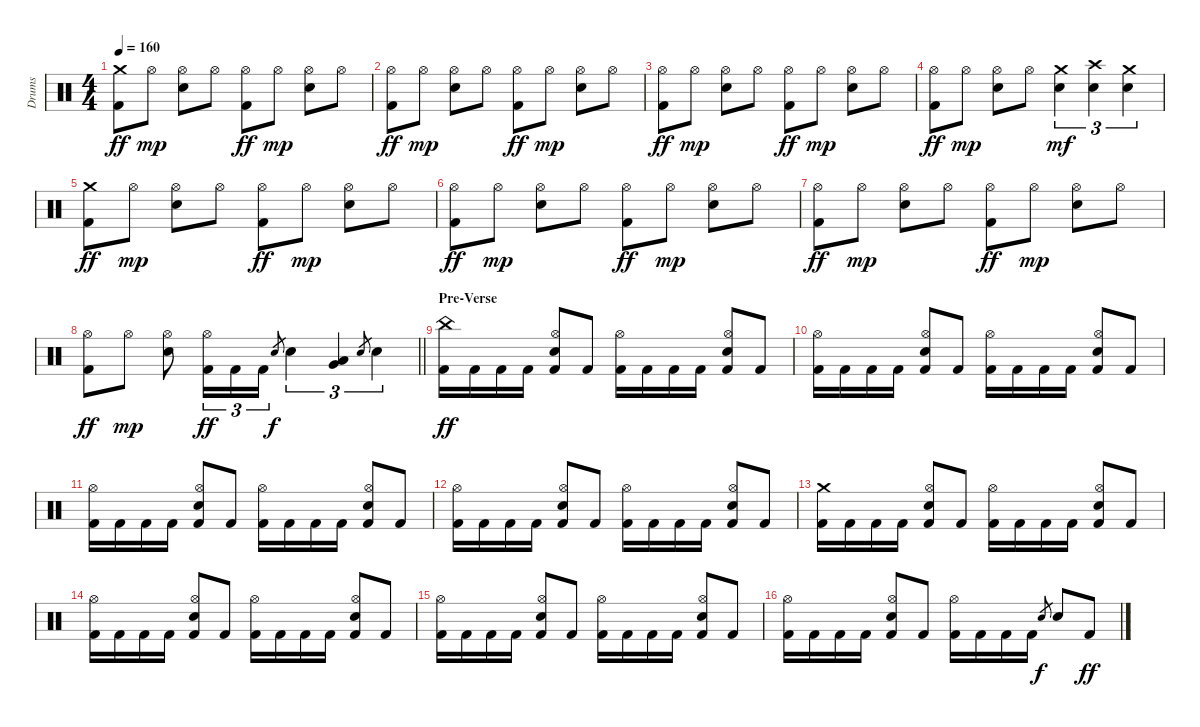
\track ("Drums" "Drums") {instrument percussion}
\staff {score}
\articulation defaults
\ts (4 4)
\section ("" "")
\tempo 160
\clef neutral
\ks c
("Crash medium (hit)" "Kick (hit) 2").8{dy ff} "Hi-Hat (open)".8{dy mp} ("Hi-Hat (open)" "Electric Snare (hit)").8 "Hi-Hat (open)".8 ("Hi-Hat (open)" "Kick (hit) 2").8{dy ff} "Hi-Hat (open)".8{dy mp} ("Hi-Hat (open)" "Electric Snare (hit)").8 "Hi-Hat (open)".8 |
("Hi-Hat (open)" "Kick (hit) 2").8{dy ff} "Hi-Hat (open)".8{dy mp} ("Hi-Hat (open)" "Electric Snare (hit)").8 "Hi-Hat (open)".8 ("Hi-Hat (open)" "Kick (hit) 2").8{dy ff} "Hi-Hat (open)".8{dy mp} ("Hi-Hat (open)" "Electric Snare (hit)").8 "Hi-Hat (open)".8 |
("Hi-Hat (open)" "Kick (hit) 2").8{dy ff} "Hi-Hat (open)".8{dy mp} ("Hi-Hat (open)" "Electric Snare (hit)").8 "Hi-Hat (open)".8 ("Hi-Hat (open)" "Kick (hit) 2").8{dy ff} "Hi-Hat (open)".8{dy mp} ("Hi-Hat (open)" "Electric Snare (hit)").8 "Hi-Hat (open)".8 |
("Hi-Hat (open)" "Kick (hit) 2").8{dy ff} "Hi-Hat (open)".8{dy mp} ("Hi-Hat (open)" "Electric Snare (hit)").8 "Hi-Hat (open)".8 ("Crash medium (hit)" "Electric Snare (hit)").4{tu (3 2) dy mf} ("Crash high (hit)" "Electric Snare (hit)").4{tu (3 2)} ("Crash medium (hit)" "Electric Snare (hit)").4{tu (3 2)} |
("Crash medium (hit)" "Kick (hit) 2").8{dy ff} "Hi-Hat (open)".8{dy mp} ("Hi-Hat (open)" "Electric Snare (hit)").8 "Hi-Hat (open)".8 ("Hi-Hat (open)" "Kick (hit) 2").8{dy ff} "Hi-Hat (open)".8{dy mp} ("Hi-Hat (open)" "Electric Snare (hit)").8 "Hi-Hat (open)".8 |
("Hi-Hat (open)" "Kick (hit) 2").8{dy ff} "Hi-Hat (open)".8{dy mp} ("Hi-Hat (open)" "Electric Snare (hit)").8 "Hi-Hat (open)".8 ("Hi-Hat (open)" "Kick (hit) 2").8{dy ff} "Hi-Hat (open)".8{dy mp} ("Hi-Hat (open)" "Electric Snare (hit)").8 "Hi-Hat (open)".8 |
("Hi-Hat (open)" "Kick (hit) 2").8{dy ff} "Hi-Hat (open)".8{dy mp} ("Hi-Hat (open)" "Electric Snare (hit)").8 "Hi-Hat (open)".8 ("Hi-Hat (open)" "Kick (hit) 2").8{dy ff} "Hi-Hat (open)".8{dy mp} ("Hi-Hat (open)" "Electric Snare (hit)").8 "Hi-Hat (open)".8 |
\barLineRight lightlight
("Hi-Hat (open)" "Kick (hit) 2").8{dy ff} "Hi-Hat (open)".8{dy mp} ("Hi-Hat (open)" "Electric Snare (hit)").8 ("Hi-Hat (open)" "Kick (hit) 2").16{tu (3 2) dy ff} "Kick (hit) 2".16{tu (3 2)} "Kick (hit) 2".16{tu (3 2)} "Electric Snare (hit)".8{gr dy f} "Electric Snare (hit)".4{tu (3 2)} ("Low Tom (hit)" "Very Low Tom (hit)").4{tu (3 2)} "Electric Snare (hit)".8{gr} "Electric Snare (hit)".4{tu (3 2)} |
\section ("" "Pre-Verse")
("China (hit)" "Kick (hit) 2").16{dy ff} "Kick (hit) 2".16 "Kick (hit) 2".16 "Kick (hit) 2".16 ("Hi-Hat (open)" "Electric Snare (hit)" "Kick (hit) 2").8 "Kick (hit) 2".8 ("Hi-Hat (open)" "Kick (hit) 2").16 "Kick (hit) 2".16 "Kick (hit) 2".16 "Kick (hit) 2".16 ("Hi-Hat (open)" "Electric Snare (hit)" "Kick (hit) 2").8 "Kick (hit) 2".8 |
("Hi-Hat (open)" "Kick (hit) 2").16 "Kick (hit) 2".16 "Kick (hit) 2".16 "Kick (hit) 2".16 ("Hi-Hat (open)" "Electric Snare (hit)" "Kick (hit) 2").8 "Kick (hit) 2".8 ("Hi-Hat (open)" "Kick (hit) 2").16 "Kick (hit) 2".16 "Kick (hit) 2".16 "Kick (hit) 2".16 ("Hi-Hat (open)" "Electric Snare (hit)" "Kick (hit) 2").8 "Kick (hit) 2".8 |
("Hi-Hat (open)" "Kick (hit) 2").16 "Kick (hit) 2".16 "Kick (hit) 2".16 "Kick (hit) 2".16 ("Hi-Hat (open)" "Electric Snare (hit)" "Kick (hit) 2").8 "Kick (hit) 2".8 ("Hi-Hat (open)" "Kick (hit) 2").16 "Kick (hit) 2".16 "Kick (hit) 2".16 "Kick (hit) 2".16 ("Hi-Hat (open)" "Electric Snare (hit)" "Kick (hit) 2").8 "Kick (hit) 2".8 |
("Hi-Hat (open)" "Kick (hit) 2").16 "Kick (hit) 2".16 "Kick (hit) 2".16 "Kick (hit) 2".16 ("Hi-Hat (open)" "Electric Snare (hit)" "Kick (hit) 2").8 "Kick (hit) 2".8 ("Hi-Hat (open)" "Kick (hit) 2").16 "Kick (hit) 2".16 "Kick (hit) 2".16 "Kick (hit) 2".16 ("Hi-Hat (open)" "Electric Snare (hit)" "Kick (hit) 2").8 "Kick (hit) 2".8 |
("Crash medium (hit)" "Kick (hit) 2").16 "Kick (hit) 2".16 "Kick (hit) 2".16 "Kick (hit) 2".16 ("Hi-Hat (open)" "Electric Snare (hit)" "Kick (hit) 2").8 "Kick (hit) 2".8 ("Hi-Hat (open)" "Kick (hit) 2").16 "Kick (hit) 2".16 "Kick (hit) 2".16 "Kick (hit) 2".16 ("Hi-Hat (open)" "Electric Snare (hit)" "Kick (hit) 2").8 "Kick (hit) 2".8 |
("Hi-Hat (open)" "Kick (hit) 2").16 "Kick (hit) 2".16 "Kick (hit) 2".16 "Kick (hit) 2".16 ("Hi-Hat (open)" "Electric Snare (hit)" "Kick (hit) 2").8 "Kick (hit) 2".8 ("Hi-Hat (open)" "Kick (hit) 2").16 "Kick (hit) 2".16 "Kick (hit) 2".16 "Kick (hit) 2".16 ("Hi-Hat (open)" "Electric Snare (hit)" "Kick (hit) 2").8 "Kick (hit) 2".8 |
("Hi-Hat (open)" "Kick (hit) 2").16 "Kick (hit) 2".16 "Kick (hit) 2".16 "Kick (hit) 2".16 ("Hi-Hat (open)" "Electric Snare (hit)" "Kick (hit) 2").8 "Kick (hit) 2".8 ("Hi-Hat (open)" "Kick (hit) 2").16 "Kick (hit) 2".16 "Kick (hit) 2".16 "Kick (hit) 2".16 ("Hi-Hat (open)" "Electric Snare (hit)" "Kick (hit) 2").8 "Kick (hit) 2".8 |
("Hi-Hat (open)" "Kick (hit) 2").16 "Kick (hit) 2".16 "Kick (hit) 2".16 "Kick (hit) 2".16 ("Hi-Hat (open)" "Electric Snare (hit)" "Kick (hit) 2").8 "Kick (hit) 2".8 ("Hi-Hat (open)" "Kick (hit) 2").16 "Kick (hit) 2".16 "Kick (hit) 2".16 "Kick (hit) 2".16 "Electric Snare (hit)".8{gr dy f} "Electric Snare (hit)".8 "Kick (hit) 2".8{dy ff}
